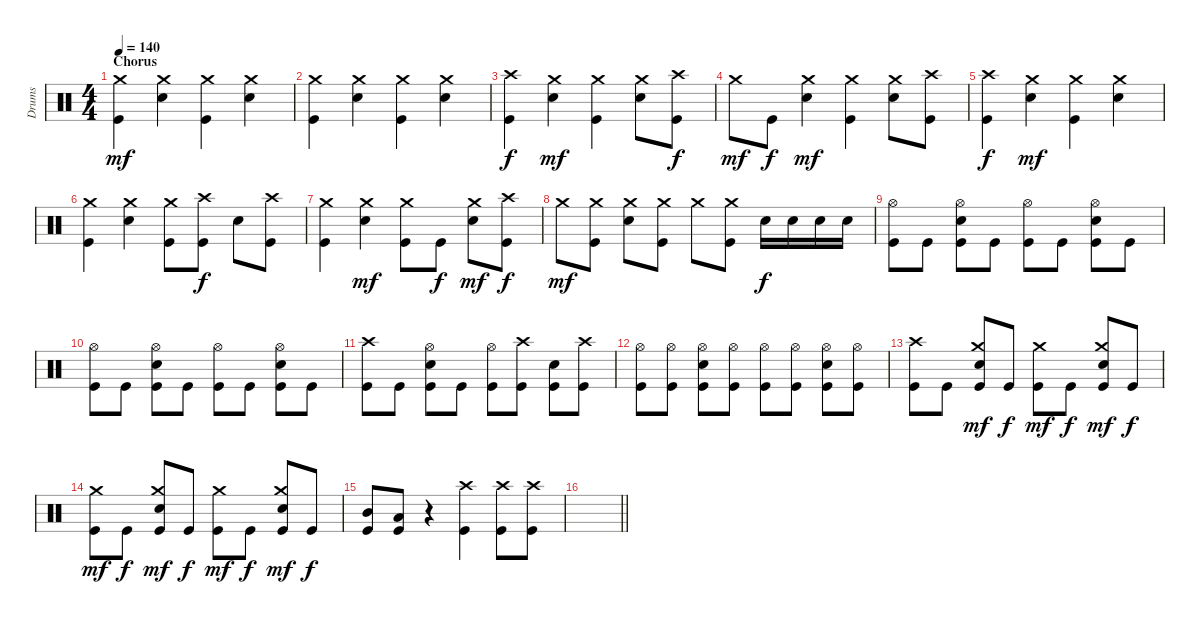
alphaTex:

\track ("Drums" "Drums") {instrument percussion}
\staff {score}
\articulation defaults
\ts (4 4)
\section ("" "Chorus")
\tempo 140
\clef neutral
\ks c
("Kick (hit)" "Crash medium (hit)").4{dy mf} ("Snare (hit) 2" "Crash medium (hit)").4 ("Kick (hit)" "Crash medium (hit)").4 ("Snare (hit) 2" "Crash medium (hit)").4 |
("Kick (hit)" "Crash medium (hit)").4 ("Snare (hit) 2" "Crash medium (hit)").4 ("Kick (hit)" "Crash medium (hit)").4 ("Snare (hit) 2" "Crash medium (hit)").4 |
("Kick (hit)" "Crash high (hit)").4{dy f} ("Snare (hit) 2" "Crash medium (hit)").4{dy mf} ("Kick (hit)" "Crash medium (hit)").4 ("Snare (hit) 2" "Crash medium (hit)").8 ("Kick (hit)" "Crash high (hit)").8{dy f} |
"Crash medium (hit)".8{dy mf} "Kick (hit)".8{dy f} ("Snare (hit) 2" "Crash medium (hit)").4{dy mf} ("Kick (hit)" "Crash medium (hit)").4 ("Snare (hit) 2" "Crash medium (hit)").8 ("Crash high (hit)" "Kick (hit)").8 |
("Kick (hit)" "Crash high (hit)").4{dy f} ("Snare (hit) 2" "Crash medium (hit)").4{dy mf} ("Kick (hit)" "Crash medium (hit)").4 ("Snare (hit) 2" "Crash medium (hit)").4 |
("Kick (hit)" "Crash medium (hit)").4 ("Snare (hit) 2" "Crash medium (hit)").4 ("Kick (hit)" "Crash medium (hit)").8 ("Crash high (hit)" "Kick (hit)").8{dy f} "Snare (hit) 2".8 ("Crash high (hit)" "Kick (hit)").8 |
("Kick (hit)" "Crash medium (hit)").4 ("Snare (hit) 2" "Crash medium (hit)").4{dy mf} ("Kick (hit)" "Crash medium (hit)").8 "Kick (hit)".8{dy f} ("Snare (hit) 2" "Crash medium (hit)").8{dy mf} ("Crash high (hit)" "Kick (hit)").8{dy f} |
"Crash medium (hit)".8{dy mf} ("Crash medium (hit)" "Kick (hit)").8 ("Snare (hit) 2" "Crash medium (hit)").8 ("Crash medium (hit)" "Kick (hit)").8 "Crash medium (hit)".8 ("Crash medium (hit)" "Kick (hit)").8 "Snare (hit) 2".16{dy f} "Snare (hit) 2".16 "Snare (hit) 2".16 "Snare (hit) 2".16 |
("Kick (hit)" "Hi-Hat (open)").8 "Kick (hit)".8 ("Snare (hit) 2" "Hi-Hat (open)" "Kick (hit)").8 "Kick (hit)".8 ("Kick (hit)" "Hi-Hat (open)").8 "Kick (hit)".8 ("Snare (hit) 2" "Hi-Hat (open)" "Kick (hit)").8 "Kick (hit)".8 |
("Kick (hit)" "Hi-Hat (open)").8 "Kick (hit)".8 ("Snare (hit) 2" "Hi-Hat (open)" "Kick (hit)").8 "Kick (hit)".8 ("Kick (hit)" "Hi-Hat (open)").8 "Kick (hit)".8 ("Snare (hit) 2" "Hi-Hat (open)" "Kick (hit)").8 "Kick (hit)".8 |
("Kick (hit)" "Crash high (hit)").8 "Kick (hit)".8 ("Snare (hit) 2" "Hi-Hat (open)" "Kick (hit)").8 "Kick (hit)".8 ("Kick (hit)" "Hi-Hat (open)").8 ("Kick (hit)" "Crash high (hit)").8 ("Snare (hit) 2" "Kick (hit)").8 ("Kick (hit)" "Crash high (hit)").8 |
("Kick (hit)" "Hi-Hat (open)").8 ("Kick (hit)" "Hi-Hat (open)").8 ("Snare (hit) 2" "Hi-Hat (open)" "Kick (hit)").8 ("Kick (hit)" "Hi-Hat (open)").8 ("Kick (hit)" "Hi-Hat (open)").8 ("Kick (hit)" "Hi-Hat (open)").8 ("Snare (hit) 2" "Hi-Hat (open)" "Kick (hit)").8 ("Kick (hit)" "Hi-Hat (open)").8 |
("Kick (hit)" "Crash high (hit)").8 "Kick (hit)".8 ("Snare (hit) 2" "Crash medium (hit)" "Kick (hit)").8{dy mf} "Kick (hit)".8{dy f} ("Kick (hit)" "Crash medium (hit)").8{dy mf} "Kick (hit)".8{dy f} ("Snare (hit) 2" "Crash medium (hit)" "Kick (hit)").8{dy mf} "Kick (hit)".8{dy f} |
("Kick (hit)" "Crash medium (hit)").8{dy mf} "Kick (hit)".8{dy f} ("Snare (hit) 2" "Crash medium (hit)" "Kick (hit)").8{dy mf} "Kick (hit)".8{dy f} ("Kick (hit)" "Crash medium (hit)").8{dy mf} "Kick (hit)".8{dy f} ("Snare (hit) 2" "Crash medium (hit)" "Kick (hit)").8{dy mf} "Kick (hit)".8{dy f} |
("Kick (hit)" "Mid Tom (hit)").8 ("Kick (hit)" "Low Tom (hit)").8 r.4 ("Kick (hit)" "Crash high (hit)").4 ("Kick (hit)" "Crash high (hit)").8 ("Kick (hit)" "Crash high (hit)").8 |
\barLineRight lightlight
